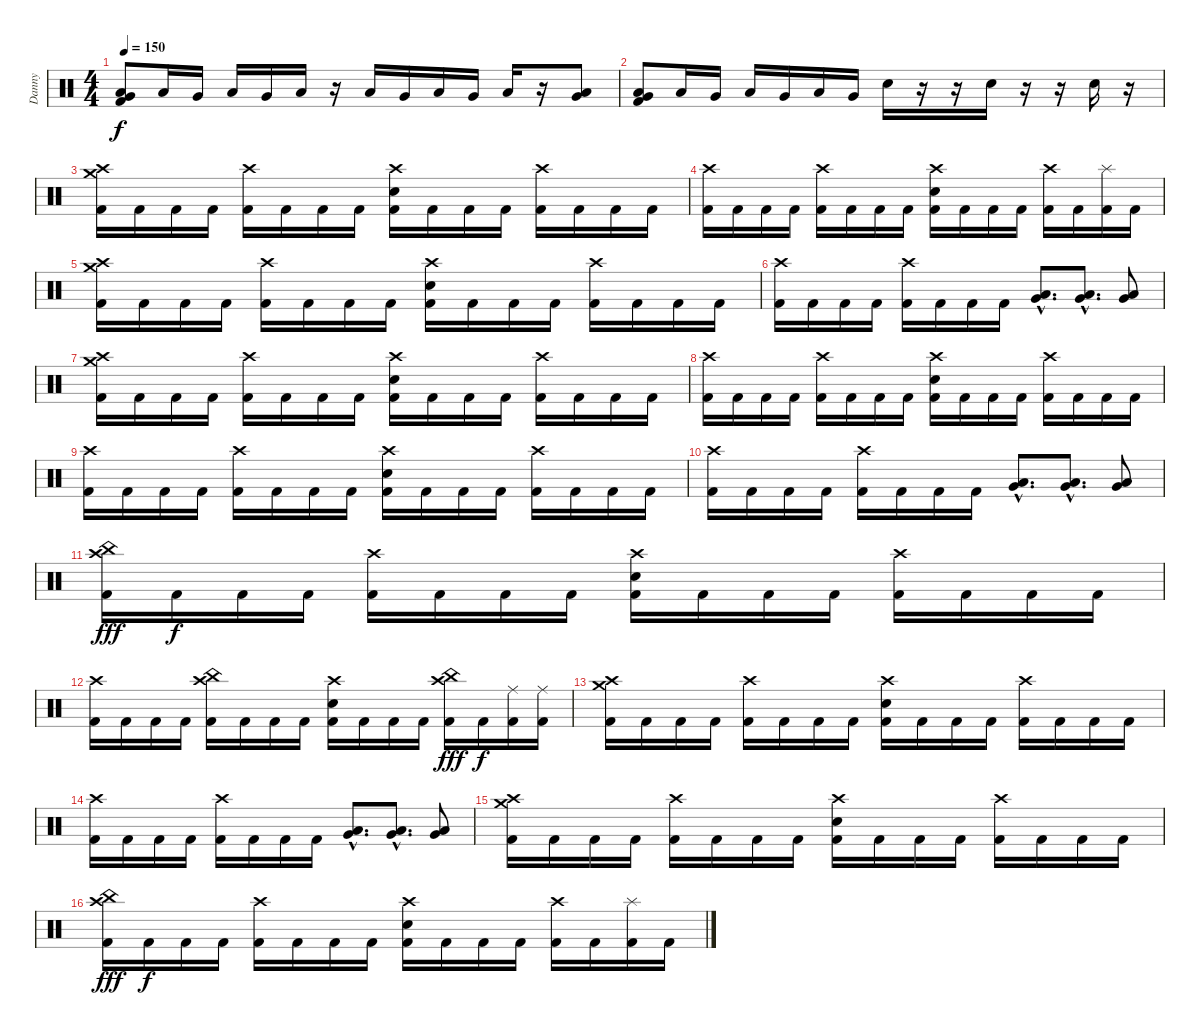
\track ("Danny" "Danny") {instrument percussion}
\staff {score}
\articulation defaults
\ts (4 4)
\tempo 150
\clef neutral
\ks c
("Very Low Tom (hit)" "Low Floor Tom (hit)" "Kick (hit) 2").8{dy f} "Low Floor Tom (hit)".16 "Very Low Tom (hit)".16 "Low Floor Tom (hit)".16 "Very Low Tom (hit)".16 "Low Floor Tom (hit)".16 r.16 "Low Floor Tom (hit)".16 "Very Low Tom (hit)".16 "Low Floor Tom (hit)".16 "Very Low Tom (hit)".16 "Low Floor Tom (hit)".16 r.16 ("Very Low Tom (hit)" "Low Floor Tom (hit)").8 |
("Very Low Tom (hit)" "Low Floor Tom (hit)" "Kick (hit) 2").8 "Low Floor Tom (hit)".16 "Very Low Tom (hit)".16 "Low Floor Tom (hit)".16 "Very Low Tom (hit)".16 "Low Floor Tom (hit)".16 "Very Low Tom (hit)".16 "Electric Snare (hit)".16{volume 16} r.16 r.16 "Electric Snare (hit)".16 r.16 r.16 "Electric Snare (hit)".16 r.16 |
("Crash high (hit)" "Crash medium (hit)" "Kick (hit) 2").16 "Kick (hit) 2".16 "Kick (hit) 2".16 "Kick (hit) 2".16 ("Crash high (hit)" "Kick (hit) 2").16 "Kick (hit) 2".16 "Kick (hit) 2".16 "Kick (hit) 2".16 ("Crash high (hit)" "Electric Snare (hit)" "Kick (hit) 2").16 "Kick (hit) 2".16 "Kick (hit) 2".16 "Kick (hit) 2".16 ("Crash high (hit)" "Kick (hit) 2").16 "Kick (hit) 2".16 "Kick (hit) 2".16 "Kick (hit) 2".16 |
("Crash high (hit)" "Kick (hit) 2").16 "Kick (hit) 2".16 "Kick (hit) 2".16 "Kick (hit) 2".16 ("Crash high (hit)" "Kick (hit) 2").16 "Kick (hit) 2".16 "Kick (hit) 2".16 "Kick (hit) 2".16 ("Crash high (hit)" "Electric Snare (hit)" "Kick (hit) 2").16 "Kick (hit) 2".16 "Kick (hit) 2".16 "Kick (hit) 2".16 ("Crash high (hit)" "Kick (hit) 2").16 "Kick (hit) 2".16 ("Splash (hit)" "Kick (hit) 2").16 "Kick (hit) 2".16 |
("Crash high (hit)" "Crash medium (hit)" "Kick (hit) 2").16 "Kick (hit) 2".16 "Kick (hit) 2".16 "Kick (hit) 2".16 ("Crash high (hit)" "Kick (hit) 2").16 "Kick (hit) 2".16 "Kick (hit) 2".16 "Kick (hit) 2".16 ("Crash high (hit)" "Electric Snare (hit)" "Kick (hit) 2").16 "Kick (hit) 2".16 "Kick (hit) 2".16 "Kick (hit) 2".16 ("Crash high (hit)" "Kick (hit) 2").16 "Kick (hit) 2".16 "Kick (hit) 2".16 "Kick (hit) 2".16 |
("Crash high (hit)" "Kick (hit) 2").16 "Kick (hit) 2".16 "Kick (hit) 2".16 "Kick (hit) 2".16 ("Crash high (hit)" "Kick (hit) 2").16 "Kick (hit) 2".16 "Kick (hit) 2".16 "Kick (hit) 2".16 ("Very Low Tom (hit)"{hac} "Low Floor Tom (hit)"{hac}).8{d} ("Very Low Tom (hit)"{hac} "Low Floor Tom (hit)"{hac}).8{d} ("Very Low Tom (hit)" "Low Floor Tom (hit)").8 |
("Crash high (hit)" "Crash medium (hit)" "Kick (hit) 2").16 "Kick (hit) 2".16 "Kick (hit) 2".16 "Kick (hit) 2".16 ("Crash high (hit)" "Kick (hit) 2").16 "Kick (hit) 2".16 "Kick (hit) 2".16 "Kick (hit) 2".16 ("Crash high (hit)" "Electric Snare (hit)" "Kick (hit) 2").16 "Kick (hit) 2".16 "Kick (hit) 2".16 "Kick (hit) 2".16 ("Crash high (hit)" "Kick (hit) 2").16 "Kick (hit) 2".16 "Kick (hit) 2".16 "Kick (hit) 2".16 |
("Crash high (hit)" "Kick (hit) 2").16 "Kick (hit) 2".16 "Kick (hit) 2".16 "Kick (hit) 2".16 ("Crash high (hit)" "Kick (hit) 2").16 "Kick (hit) 2".16 "Kick (hit) 2".16 "Kick (hit) 2".16 ("Crash high (hit)" "Electric Snare (hit)" "Kick (hit) 2").16 "Kick (hit) 2".16 "Kick (hit) 2".16 "Kick (hit) 2".16 ("Crash high (hit)" "Kick (hit) 2").16 "Kick (hit) 2".16 "Kick (hit) 2".16 "Kick (hit) 2".16 |
("Crash high (hit)" "Kick (hit) 2").16 "Kick (hit) 2".16 "Kick (hit) 2".16 "Kick (hit) 2".16 ("Crash high (hit)" "Kick (hit) 2").16 "Kick (hit) 2".16 "Kick (hit) 2".16 "Kick (hit) 2".16 ("Crash high (hit)" "Electric Snare (hit)" "Kick (hit) 2").16 "Kick (hit) 2".16 "Kick (hit) 2".16 "Kick (hit) 2".16 ("Crash high (hit)" "Kick (hit) 2").16 "Kick (hit) 2".16 "Kick (hit) 2".16 "Kick (hit) 2".16 |
("Crash high (hit)" "Kick (hit) 2").16 "Kick (hit) 2".16 "Kick (hit) 2".16 "Kick (hit) 2".16 ("Crash high (hit)" "Kick (hit) 2").16 "Kick (hit) 2".16 "Kick (hit) 2".16 "Kick (hit) 2".16 ("Very Low Tom (hit)"{hac} "Low Floor Tom (hit)"{hac}).8{d} ("Very Low Tom (hit)"{hac} "Low Floor Tom (hit)"{hac}).8{d} ("Very Low Tom (hit)" "Low Floor Tom (hit)").8 |
("Crash high (hit)" "China (hit)" "Kick (hit) 2").16{dy fff} "Kick (hit) 2".16{dy f} "Kick (hit) 2".16 "Kick (hit) 2".16 ("Crash high (hit)" "Kick (hit) 2").16 "Kick (hit) 2".16 "Kick (hit) 2".16 "Kick (hit) 2".16 ("Crash high (hit)" "Electric Snare (hit)" "Kick (hit) 2").16 "Kick (hit) 2".16 "Kick (hit) 2".16 "Kick (hit) 2".16 ("Crash high (hit)" "Kick (hit) 2").16 "Kick (hit) 2".16 "Kick (hit) 2".16 "Kick (hit) 2".16 |
("Crash high (hit)" "Kick (hit) 2").16 "Kick (hit) 2".16 "Kick (hit) 2".16 "Kick (hit) 2".16 ("Crash high (hit)" "China (hit)" "Kick (hit) 2").16 "Kick (hit) 2".16 "Kick (hit) 2".16 "Kick (hit) 2".16 ("Crash high (hit)" "Electric Snare (hit)" "Kick (hit) 2").16 "Kick (hit) 2".16 "Kick (hit) 2".16 "Kick (hit) 2".16 ("Crash high (hit)" "China (hit)" "Kick (hit) 2").16{dy fff} "Kick (hit) 2".16{dy f} ("Ride (middle)" "Kick (hit) 2").16 ("Ride (middle)" "Kick (hit) 2").16 |
("Crash high (hit)" "Crash medium (hit)" "Kick (hit) 2").16 "Kick (hit) 2".16 "Kick (hit) 2".16 "Kick (hit) 2".16 ("Crash high (hit)" "Kick (hit) 2").16 "Kick (hit) 2".16 "Kick (hit) 2".16 "Kick (hit) 2".16 ("Crash high (hit)" "Electric Snare (hit)" "Kick (hit) 2").16 "Kick (hit) 2".16 "Kick (hit) 2".16 "Kick (hit) 2".16 ("Crash high (hit)" "Kick (hit) 2").16 "Kick (hit) 2".16 "Kick (hit) 2".16 "Kick (hit) 2".16 |
("Crash high (hit)" "Kick (hit) 2").16 "Kick (hit) 2".16 "Kick (hit) 2".16 "Kick (hit) 2".16 ("Crash high (hit)" "Kick (hit) 2").16 "Kick (hit) 2".16 "Kick (hit) 2".16 "Kick (hit) 2".16 ("Very Low Tom (hit)"{hac} "Low Floor Tom (hit)"{hac}).8{d} ("Very Low Tom (hit)"{hac} "Low Floor Tom (hit)"{hac}).8{d} ("Very Low Tom (hit)" "Low Floor Tom (hit)").8 |
("Crash high (hit)" "Crash medium (hit)" "Kick (hit) 2").16 "Kick (hit) 2".16 "Kick (hit) 2".16 "Kick (hit) 2".16 ("Crash high (hit)" "Kick (hit) 2").16 "Kick (hit) 2".16 "Kick (hit) 2".16 "Kick (hit) 2".16 ("Crash high (hit)" "Electric Snare (hit)" "Kick (hit) 2").16 "Kick (hit) 2".16 "Kick (hit) 2".16 "Kick (hit) 2".16 ("Crash high (hit)" "Kick (hit) 2").16 "Kick (hit) 2".16 "Kick (hit) 2".16 "Kick (hit) 2".16 |
("Crash high (hit)" "China (hit)" "Kick (hit) 2").16{dy fff} "Kick (hit) 2".16{dy f} "Kick (hit) 2".16 "Kick (hit) 2".16 ("Crash high (hit)" "Kick (hit) 2").16 "Kick (hit) 2".16 "Kick (hit) 2".16 "Kick (hit) 2".16 ("Crash high (hit)" "Electric Snare (hit)" "Kick (hit) 2").16 "Kick (hit) 2".16 "Kick (hit) 2".16 "Kick (hit) 2".16 ("Crash high (hit)" "Kick (hit) 2").16 "Kick (hit) 2".16 ("Splash (hit)" "Kick (hit) 2").16 "Kick (hit) 2".16
